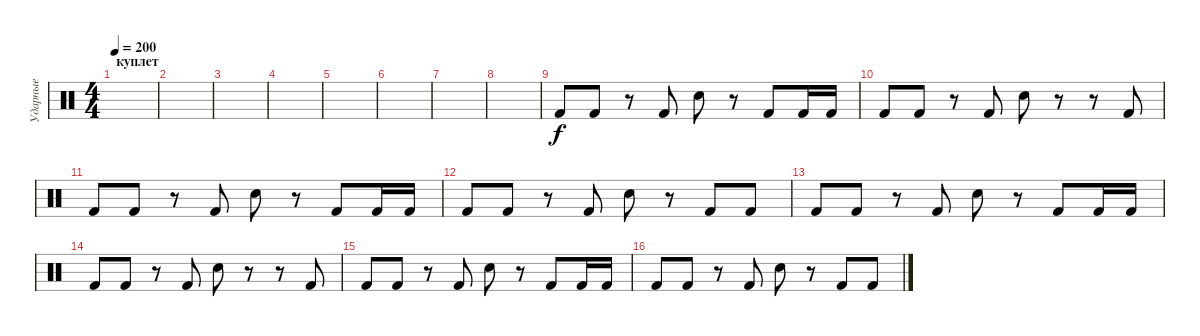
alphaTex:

\track ("Ударные" "Ударные") {instrument percussion}
\staff {score}
\articulation defaults
\ts (4 4)
\section ("" "куплет")
\tempo 200
\clef neutral
\ks c
|
|
|
|
|
|
|
|
"Kick (hit) 2".8 "Kick (hit) 2".8 r.8 "Kick (hit) 2".8 "Electric Snare (hit)".8 r.8 "Kick (hit) 2".8 "Kick (hit) 2".16 "Kick (hit) 2".16 |
"Kick (hit) 2".8 "Kick (hit) 2".8 r.8 "Kick (hit) 2".8 "Electric Snare (hit)".8 r.8 r.8 "Kick (hit) 2".8 |
"Kick (hit) 2".8 "Kick (hit) 2".8 r.8 "Kick (hit) 2".8 "Electric Snare (hit)".8 r.8 "Kick (hit) 2".8 "Kick (hit) 2".16 "Kick (hit) 2".16 |
"Kick (hit) 2".8 "Kick (hit) 2".8 r.8 "Kick (hit) 2".8 "Electric Snare (hit)".8 r.8 "Kick (hit) 2".8 "Kick (hit) 2".8 |
"Kick (hit) 2".8 "Kick (hit) 2".8 r.8 "Kick (hit) 2".8 "Electric Snare (hit)".8 r.8 "Kick (hit) 2".8 "Kick (hit) 2".16 "Kick (hit) 2".16 |
"Kick (hit) 2".8 "Kick (hit) 2".8 r.8 "Kick (hit) 2".8 "Electric Snare (hit)".8 r.8 r.8 "Kick (hit) 2".8 |
"Kick (hit) 2".8 "Kick (hit) 2".8 r.8 "Kick (hit) 2".8 "Electric Snare (hit)".8 r.8 "Kick (hit) 2".8 "Kick (hit) 2".16 "Kick (hit) 2".16 |
"Kick (hit) 2".8 "Kick (hit) 2".8 r.8 "Kick (hit) 2".8 "Electric Snare (hit)".8 r.8 "Kick (hit) 2".8 "Kick (hit) 2".8
